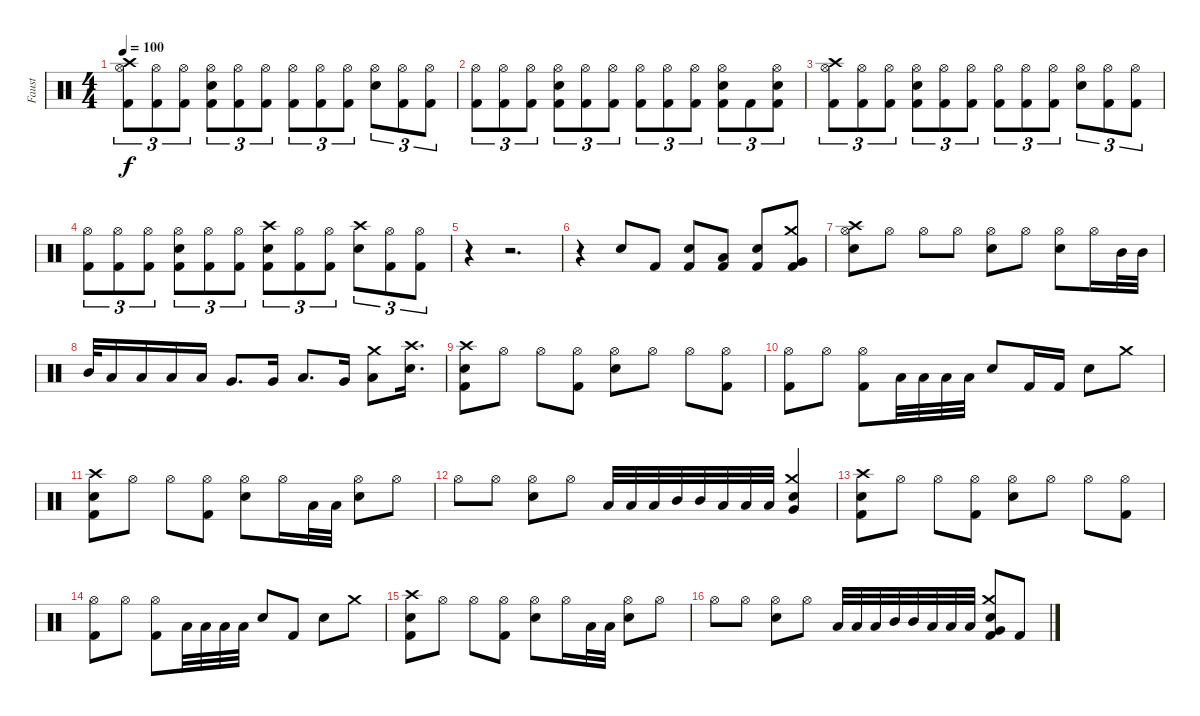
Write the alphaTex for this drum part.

\track ("Faust" "Faust") {instrument percussion}
\staff {score}
\articulation defaults
\ts (4 4)
\tempo 100
\clef neutral
\ks c
("Crash high (hit)" "Hi-Hat (open)" "Kick (hit) 2").8{tu (3 2) dy f} ("Hi-Hat (open)" "Kick (hit) 2").8{tu (3 2)} ("Hi-Hat (open)" "Kick (hit) 2").8{tu (3 2)} ("Snare (hit) 2" "Hi-Hat (open)" "Kick (hit) 2").8{tu (3 2)} ("Hi-Hat (open)" "Kick (hit) 2").8{tu (3 2)} ("Hi-Hat (open)" "Kick (hit) 2").8{tu (3 2)} ("Hi-Hat (open)" "Kick (hit) 2").8{tu (3 2)} ("Hi-Hat (open)" "Kick (hit) 2").8{tu (3 2)} ("Hi-Hat (open)" "Kick (hit) 2").8{tu (3 2)} ("Snare (hit) 2" "Hi-Hat (open)").8{tu (3 2)} ("Hi-Hat (open)" "Kick (hit) 2").8{tu (3 2)} ("Hi-Hat (open)" "Kick (hit) 2").8{tu (3 2)} |
("Hi-Hat (open)" "Kick (hit) 2").8{tu (3 2)} ("Hi-Hat (open)" "Kick (hit) 2").8{tu (3 2)} ("Hi-Hat (open)" "Kick (hit) 2").8{tu (3 2)} ("Snare (hit) 2" "Hi-Hat (open)" "Kick (hit) 2").8{tu (3 2)} ("Hi-Hat (open)" "Kick (hit) 2").8{tu (3 2)} ("Hi-Hat (open)" "Kick (hit) 2").8{tu (3 2)} ("Hi-Hat (open)" "Kick (hit) 2").8{tu (3 2)} ("Hi-Hat (open)" "Kick (hit) 2").8{tu (3 2)} ("Hi-Hat (open)" "Kick (hit) 2").8{tu (3 2)} ("Snare (hit) 2" "Hi-Hat (open)" "Kick (hit) 2").8{tu (3 2)} "Kick (hit) 2".8{tu (3 2)} ("Snare (hit) 2" "Hi-Hat (open)" "Kick (hit) 2").8{tu (3 2)} |
("Crash high (hit)" "Hi-Hat (open)" "Kick (hit) 2").8{tu (3 2)} ("Hi-Hat (open)" "Kick (hit) 2").8{tu (3 2)} ("Hi-Hat (open)" "Kick (hit) 2").8{tu (3 2)} ("Snare (hit) 2" "Hi-Hat (open)" "Kick (hit) 2").8{tu (3 2)} ("Hi-Hat (open)" "Kick (hit) 2").8{tu (3 2)} ("Hi-Hat (open)" "Kick (hit) 2").8{tu (3 2)} ("Hi-Hat (open)" "Kick (hit) 2").8{tu (3 2)} ("Hi-Hat (open)" "Kick (hit) 2").8{tu (3 2)} ("Hi-Hat (open)" "Kick (hit) 2").8{tu (3 2)} ("Snare (hit) 2" "Hi-Hat (open)").8{tu (3 2)} ("Hi-Hat (open)" "Kick (hit) 2").8{tu (3 2)} ("Hi-Hat (open)" "Kick (hit) 2").8{tu (3 2)} |
("Hi-Hat (open)" "Kick (hit) 2").8{tu (3 2)} ("Hi-Hat (open)" "Kick (hit) 2").8{tu (3 2)} ("Hi-Hat (open)" "Kick (hit) 2").8{tu (3 2)} ("Snare (hit) 2" "Hi-Hat (open)" "Kick (hit) 2").8{tu (3 2)} ("Hi-Hat (open)" "Kick (hit) 2").8{tu (3 2)} ("Hi-Hat (open)" "Kick (hit) 2").8{tu (3 2)} ("Crash high (hit)" "Snare (hit) 2" "Kick (hit) 2").8{tu (3 2)} ("Hi-Hat (open)" "Kick (hit) 2").8{tu (3 2)} ("Hi-Hat (open)" "Kick (hit) 2").8{tu (3 2)} ("Crash high (hit)" "Snare (hit) 2").8{tu (3 2)} ("Hi-Hat (open)" "Kick (hit) 2").8{tu (3 2)} ("Hi-Hat (open)" "Kick (hit) 2").8{tu (3 2)} |
r.4 r.2{d} |
r.4 "Snare (hit) 2".8 "Kick (hit) 2".8 ("Snare (hit) 2" "Kick (hit) 2").8 ("Low Tom (hit)" "Kick (hit) 2").8 ("Snare (hit) 2" "Kick (hit) 2").8 ("Crash medium (hit)" "Very Low Tom (hit)" "Kick (hit) 2").8 |
("Crash high (hit)" "Snare (hit) 2" "Hi-Hat (open)").8 "Hi-Hat (open)".8 "Hi-Hat (open)".8 "Hi-Hat (open)".8 ("Snare (hit) 2" "Hi-Hat (open)").8 "Hi-Hat (open)".8 ("Snare (hit) 2" "Hi-Hat (open)").8 "Hi-Hat (open)".16 "Mid Tom (hit)".32 "Mid Tom (hit)".32 |
"Mid Tom (hit)".32 "Low Tom (hit)".16 "Low Tom (hit)".16 "Low Tom (hit)".16 "Low Tom (hit)".16 "Very Low Tom (hit)".8{d} "Very Low Tom (hit)".16 "Low Tom (hit)".8{d} "Very Low Tom (hit)".16 ("Crash medium (hit)" "Low Tom (hit)").8 ("Crash high (hit)" "Snare (hit) 2").16{d} |
("Crash high (hit)" "Snare (hit) 2" "Kick (hit) 2").8 "Hi-Hat (open)".8 "Hi-Hat (open)".8 ("Hi-Hat (open)" "Kick (hit) 2").8 ("Snare (hit) 2" "Hi-Hat (open)").8 "Hi-Hat (open)".8 "Hi-Hat (open)".8 ("Hi-Hat (open)" "Kick (hit) 2").8 |
("Hi-Hat (open)" "Kick (hit) 2").8 "Hi-Hat (open)".8 ("Hi-Hat (open)" "Kick (hit) 2").8 "Low Tom (hit)".32 "Low Tom (hit)".32 "Low Tom (hit)".32 "Low Tom (hit)".32 "Snare (hit) 2".8 "Kick (hit) 2".16 "Kick (hit) 2".16 "Snare (hit) 2".8 "Crash medium (hit)".8 |
("Crash high (hit)" "Snare (hit) 2" "Kick (hit) 2").8 "Hi-Hat (open)".8 "Hi-Hat (open)".8 ("Hi-Hat (open)" "Kick (hit) 2").8 ("Snare (hit) 2" "Hi-Hat (open)").8 "Hi-Hat (open)".16 "Low Tom (hit)".32 "Low Tom (hit)".32 ("Snare (hit) 2" "Hi-Hat (open)").8 "Hi-Hat (open)".8 |
"Hi-Hat (open)".8 "Hi-Hat (open)".8 ("Snare (hit) 2" "Hi-Hat (open)").8 "Hi-Hat (open)".8 "Low Tom (hit)".32 "Low Tom (hit)".32 "Low Tom (hit)".32 "Mid Tom (hit)".32 "Mid Tom (hit)".32 "Low Tom (hit)".32 "Low Tom (hit)".32 "Low Tom (hit)".32 ("Crash medium (hit)" "Snare (hit) 2" "Very Low Tom (hit)").4 |
("Crash high (hit)" "Snare (hit) 2" "Kick (hit) 2").8 "Hi-Hat (open)".8 "Hi-Hat (open)".8 ("Hi-Hat (open)" "Kick (hit) 2").8 ("Snare (hit) 2" "Hi-Hat (open)").8 "Hi-Hat (open)".8 "Hi-Hat (open)".8 ("Hi-Hat (open)" "Kick (hit) 2").8 |
("Hi-Hat (open)" "Kick (hit) 2").8 "Hi-Hat (open)".8 ("Hi-Hat (open)" "Kick (hit) 2").8 "Low Tom (hit)".32 "Low Tom (hit)".32 "Low Tom (hit)".32 "Low Tom (hit)".32 "Snare (hit) 2".8 "Kick (hit) 2".8 "Snare (hit) 2".8 "Crash medium (hit)".8 |
("Crash high (hit)" "Snare (hit) 2" "Kick (hit) 2").8 "Hi-Hat (open)".8 "Hi-Hat (open)".8 ("Hi-Hat (open)" "Kick (hit) 2").8 ("Snare (hit) 2" "Hi-Hat (open)").8 "Hi-Hat (open)".16 "Low Tom (hit)".32 "Low Tom (hit)".32 ("Snare (hit) 2" "Hi-Hat (open)").8 "Hi-Hat (open)".8 |
"Hi-Hat (open)".8 "Hi-Hat (open)".8 ("Snare (hit) 2" "Hi-Hat (open)").8 "Hi-Hat (open)".8 "Low Tom (hit)".32 "Low Tom (hit)".32 "Low Tom (hit)".32 "Mid Tom (hit)".32 "Mid Tom (hit)".32 "Low Tom (hit)".32 "Low Tom (hit)".32 "Low Tom (hit)".32 ("Crash medium (hit)" "Snare (hit) 2" "Very Low Tom (hit)" "Kick (hit) 2").8 "Kick (hit) 2".8
